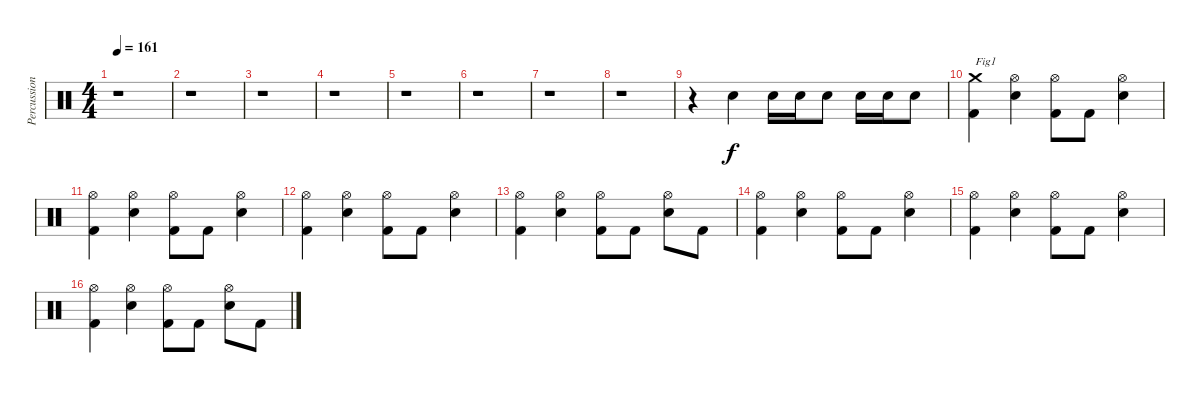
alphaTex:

\track ("Percussions" "Percussion") {instrument percussion}
\staff {score}
\articulation defaults
\ts (4 4)
\tempo 161
\clef neutral
\ks c
r.1{dy f} |
r.1 |
r.1 |
r.1 |
r.1 |
r.1 |
r.1 |
r.1 |
r.4 "Electric Snare (hit)".4 "Electric Snare (hit)".16 "Electric Snare (hit)".16 "Electric Snare (hit)".8 "Electric Snare (hit)".16 "Electric Snare (hit)".16 "Electric Snare (hit)".8 |
("Kick (hit) 2" "Crash medium (hit)").4{txt "Fig1"} ("Electric Snare (hit)" "Hi-Hat (open)").4 ("Kick (hit) 2" "Hi-Hat (open)").8 "Kick (hit) 2".8 ("Electric Snare (hit)" "Hi-Hat (open)").4 |
("Kick (hit) 2" "Hi-Hat (open)").4 ("Electric Snare (hit)" "Hi-Hat (open)").4 ("Kick (hit) 2" "Hi-Hat (open)").8 "Kick (hit) 2".8 ("Electric Snare (hit)" "Hi-Hat (open)").4 |
("Kick (hit) 2" "Hi-Hat (open)").4 ("Electric Snare (hit)" "Hi-Hat (open)").4 ("Kick (hit) 2" "Hi-Hat (open)").8 "Kick (hit) 2".8 ("Electric Snare (hit)" "Hi-Hat (open)").4 |
("Kick (hit) 2" "Hi-Hat (open)").4 ("Electric Snare (hit)" "Hi-Hat (open)").4 ("Kick (hit) 2" "Hi-Hat (open)").8 "Kick (hit) 2".8 ("Electric Snare (hit)" "Hi-Hat (open)").8 "Kick (hit) 2".8 |
("Kick (hit) 2" "Hi-Hat (open)").4 ("Electric Snare (hit)" "Hi-Hat (open)").4 ("Kick (hit) 2" "Hi-Hat (open)").8 "Kick (hit) 2".8 ("Electric Snare (hit)" "Hi-Hat (open)").4 |
("Kick (hit) 2" "Hi-Hat (open)").4 ("Electric Snare (hit)" "Hi-Hat (open)").4 ("Kick (hit) 2" "Hi-Hat (open)").8 "Kick (hit) 2".8 ("Electric Snare (hit)" "Hi-Hat (open)").4 |
("Kick (hit) 2" "Hi-Hat (open)").4 ("Electric Snare (hit)" "Hi-Hat (open)").4 ("Kick (hit) 2" "Hi-Hat (open)").8 "Kick (hit) 2".8 ("Electric Snare (hit)" "Hi-Hat (open)").8 "Kick (hit) 2".8
